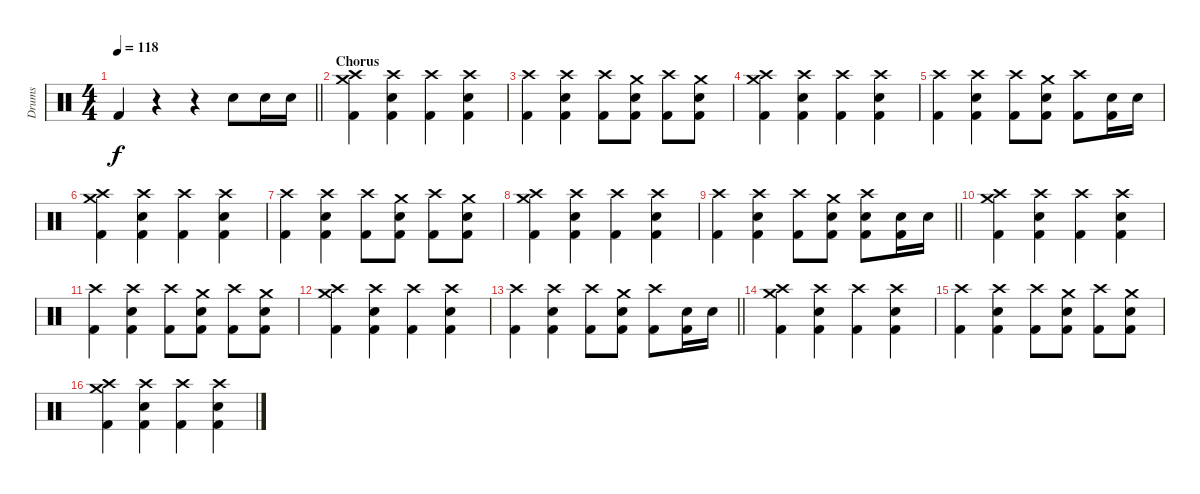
\track ("Drums" "Drums") {instrument percussion}
\staff {score}
\articulation defaults
\ts (4 4)
\tempo 118
\clef neutral
\barLineRight lightlight
\ks c "Kick (hit) 2".4{dy f}
r.4 r.4 "Snare (hit) 2".8 "Snare (hit) 2".16 "Snare (hit) 2".16 |
\section ("" "Chorus")
("Crash medium (hit)" "Crash high (hit)" "Kick (hit) 2").4 ("Crash high (hit)" "Snare (hit) 2" "Kick (hit) 2").4 ("Crash high (hit)" "Kick (hit) 2").4 ("Crash high (hit)" "Snare (hit) 2" "Kick (hit) 2").4 |
("Crash high (hit)" "Kick (hit) 2").4 ("Crash high (hit)" "Snare (hit) 2" "Kick (hit) 2").4 ("Crash high (hit)" "Kick (hit) 2").8 ("Crash medium (hit)" "Snare (hit) 2" "Kick (hit) 2").8 ("Crash high (hit)" "Kick (hit) 2").8 ("Crash medium (hit)" "Snare (hit) 2" "Kick (hit) 2").8 |
("Crash medium (hit)" "Crash high (hit)" "Kick (hit) 2").4 ("Crash high (hit)" "Snare (hit) 2" "Kick (hit) 2").4 ("Crash high (hit)" "Kick (hit) 2").4 ("Crash high (hit)" "Snare (hit) 2" "Kick (hit) 2").4 |
("Crash high (hit)" "Kick (hit) 2").4 ("Crash high (hit)" "Snare (hit) 2" "Kick (hit) 2").4 ("Crash high (hit)" "Kick (hit) 2").8 ("Crash medium (hit)" "Snare (hit) 2" "Kick (hit) 2").8 ("Crash high (hit)" "Kick (hit) 2").8 ("Snare (hit) 2" "Kick (hit) 2").16 "Snare (hit) 2".16 |
("Crash medium (hit)" "Crash high (hit)" "Kick (hit) 2").4 ("Crash high (hit)" "Snare (hit) 2" "Kick (hit) 2").4 ("Crash high (hit)" "Kick (hit) 2").4 ("Crash high (hit)" "Snare (hit) 2" "Kick (hit) 2").4 |
("Crash high (hit)" "Kick (hit) 2").4 ("Crash high (hit)" "Snare (hit) 2" "Kick (hit) 2").4 ("Crash high (hit)" "Kick (hit) 2").8 ("Crash medium (hit)" "Snare (hit) 2" "Kick (hit) 2").8 ("Crash high (hit)" "Kick (hit) 2").8 ("Crash medium (hit)" "Snare (hit) 2" "Kick (hit) 2").8 |
("Crash medium (hit)" "Crash high (hit)" "Kick (hit) 2").4 ("Crash high (hit)" "Snare (hit) 2" "Kick (hit) 2").4 ("Crash high (hit)" "Kick (hit) 2").4 ("Crash high (hit)" "Snare (hit) 2" "Kick (hit) 2").4 |
\barLineRight lightlight
("Crash high (hit)" "Kick (hit) 2").4 ("Crash high (hit)" "Snare (hit) 2" "Kick (hit) 2").4 ("Crash high (hit)" "Kick (hit) 2").8 ("Crash medium (hit)" "Snare (hit) 2" "Kick (hit) 2").8 ("Crash high (hit)" "Snare (hit) 2" "Kick (hit) 2").8 ("Snare (hit) 2" "Kick (hit) 2").16 "Snare (hit) 2".16 |
("Crash medium (hit)" "Crash high (hit)" "Kick (hit) 2").4 ("Crash high (hit)" "Snare (hit) 2" "Kick (hit) 2").4 ("Crash high (hit)" "Kick (hit) 2").4 ("Crash high (hit)" "Snare (hit) 2" "Kick (hit) 2").4 |
("Crash high (hit)" "Kick (hit) 2").4 ("Crash high (hit)" "Snare (hit) 2" "Kick (hit) 2").4 ("Crash high (hit)" "Kick (hit) 2").8 ("Crash medium (hit)" "Snare (hit) 2" "Kick (hit) 2").8 ("Crash high (hit)" "Kick (hit) 2").8 ("Crash medium (hit)" "Snare (hit) 2" "Kick (hit) 2").8 |
("Crash medium (hit)" "Crash high (hit)" "Kick (hit) 2").4 ("Crash high (hit)" "Snare (hit) 2" "Kick (hit) 2").4 ("Crash high (hit)" "Kick (hit) 2").4 ("Crash high (hit)" "Snare (hit) 2" "Kick (hit) 2").4 |
\barLineRight lightlight
("Crash high (hit)" "Kick (hit) 2").4 ("Crash high (hit)" "Snare (hit) 2" "Kick (hit) 2").4 ("Crash high (hit)" "Kick (hit) 2").8 ("Crash medium (hit)" "Snare (hit) 2" "Kick (hit) 2").8 ("Crash high (hit)" "Kick (hit) 2").8 ("Snare (hit) 2" "Kick (hit) 2").16 "Snare (hit) 2".16 |
("Crash medium (hit)" "Crash high (hit)" "Kick (hit) 2").4 ("Crash high (hit)" "Snare (hit) 2" "Kick (hit) 2").4 ("Crash high (hit)" "Kick (hit) 2").4 ("Crash high (hit)" "Snare (hit) 2" "Kick (hit) 2").4 |
("Crash high (hit)" "Kick (hit) 2").4 ("Crash high (hit)" "Snare (hit) 2" "Kick (hit) 2").4 ("Crash high (hit)" "Kick (hit) 2").8 ("Crash medium (hit)" "Snare (hit) 2" "Kick (hit) 2").8 ("Crash high (hit)" "Kick (hit) 2").8 ("Crash medium (hit)" "Snare (hit) 2" "Kick (hit) 2").8 |
("Crash medium (hit)" "Crash high (hit)" "Kick (hit) 2").4 ("Crash high (hit)" "Snare (hit) 2" "Kick (hit) 2").4 ("Crash high (hit)" "Kick (hit) 2").4 ("Crash high (hit)" "Snare (hit) 2" "Kick (hit) 2").4
